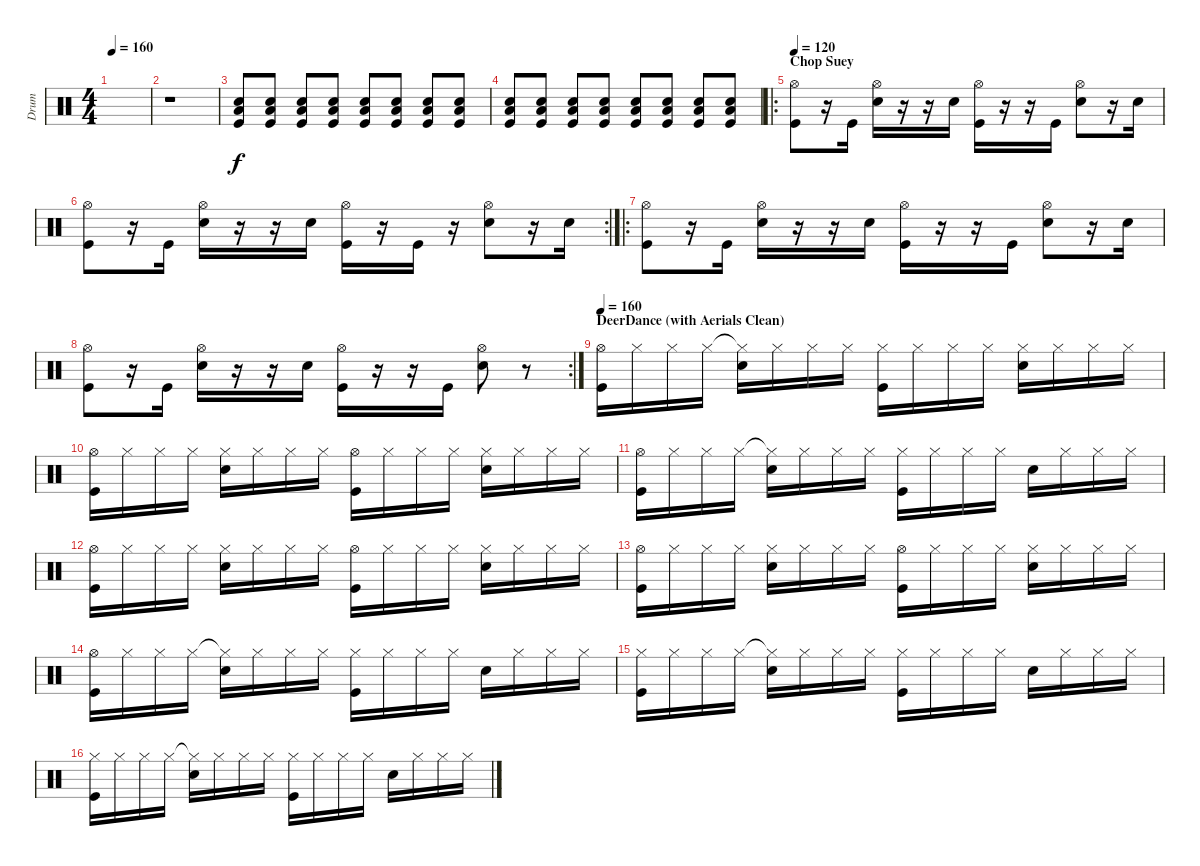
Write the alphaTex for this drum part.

\track ("Drum" "Drum") {instrument percussion}
\staff {score}
\articulation defaults
\ts (4 4)
\tempo 160
\clef neutral
\ks c
|
r.1{volume 0} |
("Snare (hit) 2" "Low Floor Tom (hit)" "Kick (hit)").8{volume 13} ("Snare (hit) 2" "Low Floor Tom (hit)" "Kick (hit)").8 ("Snare (hit) 2" "Low Floor Tom (hit)" "Kick (hit)").8 ("Snare (hit) 2" "Low Floor Tom (hit)" "Kick (hit)").8 ("Snare (hit) 2" "Low Floor Tom (hit)" "Kick (hit)").8 ("Snare (hit) 2" "Low Floor Tom (hit)" "Kick (hit)").8 ("Snare (hit) 2" "Low Floor Tom (hit)" "Kick (hit)").8 ("Snare (hit) 2" "Low Floor Tom (hit)" "Kick (hit)").8 |
("Snare (hit) 2" "Low Floor Tom (hit)" "Kick (hit)").8 ("Snare (hit) 2" "Low Floor Tom (hit)" "Kick (hit)").8 ("Snare (hit) 2" "Low Floor Tom (hit)" "Kick (hit)").8 ("Snare (hit) 2" "Low Floor Tom (hit)" "Kick (hit)").8 ("Snare (hit) 2" "Low Floor Tom (hit)" "Kick (hit)").8 ("Snare (hit) 2" "Low Floor Tom (hit)" "Kick (hit)").8 ("Snare (hit) 2" "Low Floor Tom (hit)" "Kick (hit)").8 ("Snare (hit) 2" "Low Floor Tom (hit)" "Kick (hit)").8 |
\ro
\section ("" "Chop Suey")
\tempo 120
("Hi-Hat (open)" "Kick (hit)").8 r.16 "Kick (hit)".16 ("Hi-Hat (open)" "Snare (hit) 2").16 r.16 r.16 "Snare (hit) 2".16 ("Hi-Hat (open)" "Kick (hit)").16 r.16 r.16 "Kick (hit)".16 ("Hi-Hat (open)" "Snare (hit) 2").8 r.16 "Snare (hit) 2".16 |
\rc 2
("Hi-Hat (open)" "Kick (hit)").8 r.16 "Kick (hit)".16 ("Hi-Hat (open)" "Snare (hit) 2").16 r.16 r.16 "Snare (hit) 2".16 ("Hi-Hat (open)" "Kick (hit)").16 r.16 "Kick (hit)".16 r.16 ("Hi-Hat (open)" "Snare (hit) 2").8 r.16 "Snare (hit) 2".16 |
\ro
("Hi-Hat (open)" "Kick (hit)").8 r.16 "Kick (hit)".16 ("Hi-Hat (open)" "Snare (hit) 2").16 r.16 r.16 "Snare (hit) 2".16 ("Hi-Hat (open)" "Kick (hit)").16 r.16 r.16 "Kick (hit)".16 ("Hi-Hat (open)" "Snare (hit) 2").8 r.16 "Snare (hit) 2".16 |
\rc 2
("Hi-Hat (open)" "Kick (hit)").8 r.16 "Kick (hit)".16 ("Hi-Hat (open)" "Snare (hit) 2").16 r.16 r.16 "Snare (hit) 2".16 ("Hi-Hat (open)" "Kick (hit)").16 r.16 r.16 "Kick (hit)".16 ("Hi-Hat (open)" "Snare (hit) 2").8 r.8 |
\section ("" "DeerDance (with Aerials Clean)")
\tempo 160
("Hi-Hat (open)" "Kick (hit)").16 "Hi-Hat (closed)".16 "Hi-Hat (closed)".16 "Hi-Hat (closed)".16 ("Hi-Hat (closed)"{t} "Electric Snare (hit)").16 "Hi-Hat (closed)".16 "Hi-Hat (closed)".16 "Hi-Hat (closed)".16 ("Hi-Hat (closed)" "Kick (hit)").16 "Hi-Hat (closed)".16 "Hi-Hat (closed)".16 "Hi-Hat (closed)".16 ("Hi-Hat (closed)" "Electric Snare (hit)").16 "Hi-Hat (closed)".16 "Hi-Hat (closed)".16 "Hi-Hat (closed)".16 |
("Hi-Hat (open)" "Kick (hit)").16 "Hi-Hat (closed)".16 "Hi-Hat (closed)".16 "Hi-Hat (closed)".16 ("Hi-Hat (closed)" "Electric Snare (hit)").16 "Hi-Hat (closed)".16 "Hi-Hat (closed)".16 "Hi-Hat (closed)".16 ("Hi-Hat (open)" "Kick (hit)").16 "Hi-Hat (closed)".16 "Hi-Hat (closed)".16 "Hi-Hat (closed)".16 ("Hi-Hat (closed)" "Electric Snare (hit)").16 "Hi-Hat (closed)".16 "Hi-Hat (closed)".16 "Hi-Hat (closed)".16 |
("Hi-Hat (open)" "Kick (hit)").16 "Hi-Hat (closed)".16 "Hi-Hat (closed)".16 "Hi-Hat (closed)".16 ("Hi-Hat (closed)"{t} "Electric Snare (hit)").16 "Hi-Hat (closed)".16 "Hi-Hat (closed)".16 "Hi-Hat (closed)".16 ("Hi-Hat (closed)" "Kick (hit)").16 "Hi-Hat (closed)".16 "Hi-Hat (closed)".16 "Hi-Hat (closed)".16 "Electric Snare (hit)".16 "Hi-Hat (closed)".16 "Hi-Hat (closed)".16 "Hi-Hat (closed)".16 |
("Hi-Hat (open)" "Kick (hit)").16 "Hi-Hat (closed)".16 "Hi-Hat (closed)".16 "Hi-Hat (closed)".16 ("Hi-Hat (closed)" "Electric Snare (hit)").16 "Hi-Hat (closed)".16 "Hi-Hat (closed)".16 "Hi-Hat (closed)".16 ("Hi-Hat (open)" "Kick (hit)").16 "Hi-Hat (closed)".16 "Hi-Hat (closed)".16 "Hi-Hat (closed)".16 ("Hi-Hat (closed)" "Electric Snare (hit)").16 "Hi-Hat (closed)".16 "Hi-Hat (closed)".16 "Hi-Hat (closed)".16 |
("Hi-Hat (open)" "Kick (hit)").16 "Hi-Hat (closed)".16 "Hi-Hat (closed)".16 "Hi-Hat (closed)".16 ("Hi-Hat (closed)" "Electric Snare (hit)").16 "Hi-Hat (closed)".16 "Hi-Hat (closed)".16 "Hi-Hat (closed)".16 ("Hi-Hat (open)" "Kick (hit)").16 "Hi-Hat (closed)".16 "Hi-Hat (closed)".16 "Hi-Hat (closed)".16 ("Hi-Hat (closed)" "Electric Snare (hit)").16 "Hi-Hat (closed)".16 "Hi-Hat (closed)".16 "Hi-Hat (closed)".16 |
("Hi-Hat (open)" "Kick (hit)").16 "Hi-Hat (closed)".16 "Hi-Hat (closed)".16 "Hi-Hat (closed)".16 ("Hi-Hat (closed)"{t} "Electric Snare (hit)").16 "Hi-Hat (closed)".16 "Hi-Hat (closed)".16 "Hi-Hat (closed)".16 ("Hi-Hat (closed)" "Kick (hit)").16 "Hi-Hat (closed)".16 "Hi-Hat (closed)".16 "Hi-Hat (closed)".16 "Electric Snare (hit)".16 "Hi-Hat (closed)".16 "Hi-Hat (closed)".16 "Hi-Hat (closed)".16 |
("Hi-Hat (closed)" "Kick (hit)").16 "Hi-Hat (closed)".16 "Hi-Hat (closed)".16 "Hi-Hat (closed)".16 ("Hi-Hat (closed)"{t} "Electric Snare (hit)").16 "Hi-Hat (closed)".16 "Hi-Hat (closed)".16 "Hi-Hat (closed)".16 ("Hi-Hat (closed)" "Kick (hit)").16 "Hi-Hat (closed)".16 "Hi-Hat (closed)".16 "Hi-Hat (closed)".16 "Electric Snare (hit)".16 "Hi-Hat (closed)".16 "Hi-Hat (closed)".16 "Hi-Hat (closed)".16 |
("Hi-Hat (closed)" "Kick (hit)").16 "Hi-Hat (closed)".16 "Hi-Hat (closed)".16 "Hi-Hat (closed)".16 ("Hi-Hat (closed)"{t} "Electric Snare (hit)").16 "Hi-Hat (closed)".16 "Hi-Hat (closed)".16 "Hi-Hat (closed)".16 ("Hi-Hat (closed)" "Kick (hit)").16 "Hi-Hat (closed)".16 "Hi-Hat (closed)".16 "Hi-Hat (closed)".16 "Electric Snare (hit)".16 "Hi-Hat (closed)".16 "Hi-Hat (closed)".16 "Hi-Hat (closed)".16
